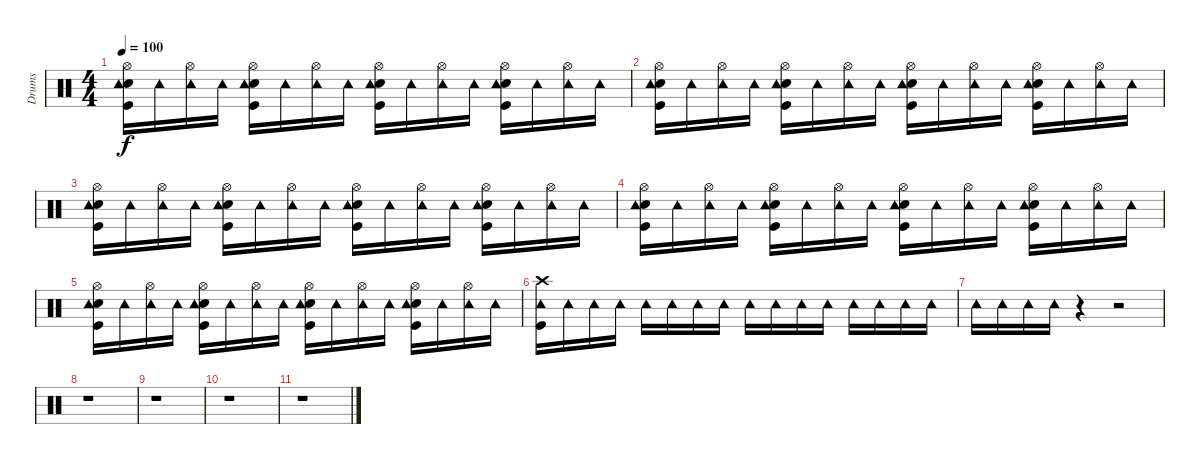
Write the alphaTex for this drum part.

\track ("Drums" "Drums") {instrument percussion}
\staff {score}
\articulation defaults
\ts (4 4)
\tempo 100
\clef neutral
\ks c
("Hi-Hat (open)" "Snare (hit) 2" "Tambourine (hit)" "Kick (hit)").16{dy f} "Tambourine (hit)".16 ("Hi-Hat (open)" "Tambourine (hit)").16 "Tambourine (hit)".16 ("Hi-Hat (open)" "Snare (hit) 2" "Tambourine (hit)" "Kick (hit)").16 "Tambourine (hit)".16 ("Hi-Hat (open)" "Tambourine (hit)").16 "Tambourine (hit)".16 ("Hi-Hat (open)" "Snare (hit) 2" "Tambourine (hit)" "Kick (hit)").16 "Tambourine (hit)".16 ("Hi-Hat (open)" "Tambourine (hit)").16 "Tambourine (hit)".16 ("Hi-Hat (open)" "Snare (hit) 2" "Tambourine (hit)" "Kick (hit)").16 "Tambourine (hit)".16 ("Hi-Hat (open)" "Tambourine (hit)").16 "Tambourine (hit)".16 |
("Hi-Hat (open)" "Snare (hit) 2" "Tambourine (hit)" "Kick (hit)").16 "Tambourine (hit)".16 ("Hi-Hat (open)" "Tambourine (hit)").16 "Tambourine (hit)".16 ("Hi-Hat (open)" "Snare (hit) 2" "Tambourine (hit)" "Kick (hit)").16 "Tambourine (hit)".16 ("Hi-Hat (open)" "Tambourine (hit)").16 "Tambourine (hit)".16 ("Hi-Hat (open)" "Snare (hit) 2" "Tambourine (hit)" "Kick (hit)").16 "Tambourine (hit)".16 ("Hi-Hat (open)" "Tambourine (hit)").16 "Tambourine (hit)".16 ("Hi-Hat (open)" "Snare (hit) 2" "Tambourine (hit)" "Kick (hit)").16 "Tambourine (hit)".16 ("Hi-Hat (open)" "Tambourine (hit)").16 "Tambourine (hit)".16 |
("Hi-Hat (open)" "Snare (hit) 2" "Tambourine (hit)" "Kick (hit)").16 "Tambourine (hit)".16 ("Hi-Hat (open)" "Tambourine (hit)").16 "Tambourine (hit)".16 ("Hi-Hat (open)" "Snare (hit) 2" "Tambourine (hit)" "Kick (hit)").16 "Tambourine (hit)".16 ("Hi-Hat (open)" "Tambourine (hit)").16 "Tambourine (hit)".16 ("Hi-Hat (open)" "Snare (hit) 2" "Tambourine (hit)" "Kick (hit)").16 "Tambourine (hit)".16 ("Hi-Hat (open)" "Tambourine (hit)").16 "Tambourine (hit)".16 ("Hi-Hat (open)" "Snare (hit) 2" "Tambourine (hit)" "Kick (hit)").16 "Tambourine (hit)".16 ("Hi-Hat (open)" "Tambourine (hit)").16 "Tambourine (hit)".16 |
("Hi-Hat (open)" "Snare (hit) 2" "Tambourine (hit)" "Kick (hit)").16 "Tambourine (hit)".16 ("Hi-Hat (open)" "Tambourine (hit)").16 "Tambourine (hit)".16 ("Hi-Hat (open)" "Snare (hit) 2" "Tambourine (hit)" "Kick (hit)").16 "Tambourine (hit)".16 ("Hi-Hat (open)" "Tambourine (hit)").16 "Tambourine (hit)".16 ("Hi-Hat (open)" "Snare (hit) 2" "Tambourine (hit)" "Kick (hit)").16 "Tambourine (hit)".16 ("Hi-Hat (open)" "Tambourine (hit)").16 "Tambourine (hit)".16 ("Hi-Hat (open)" "Snare (hit) 2" "Tambourine (hit)" "Kick (hit)").16 "Tambourine (hit)".16 ("Hi-Hat (open)" "Tambourine (hit)").16 "Tambourine (hit)".16 |
("Hi-Hat (open)" "Snare (hit) 2" "Tambourine (hit)" "Kick (hit)").16 "Tambourine (hit)".16 ("Hi-Hat (open)" "Tambourine (hit)").16 "Tambourine (hit)".16 ("Hi-Hat (open)" "Snare (hit) 2" "Tambourine (hit)" "Kick (hit)").16 "Tambourine (hit)".16 ("Hi-Hat (open)" "Tambourine (hit)").16 "Tambourine (hit)".16 ("Hi-Hat (open)" "Snare (hit) 2" "Tambourine (hit)" "Kick (hit)").16 "Tambourine (hit)".16 ("Hi-Hat (open)" "Tambourine (hit)").16 "Tambourine (hit)".16 ("Hi-Hat (open)" "Snare (hit) 2" "Tambourine (hit)" "Kick (hit)").16 "Tambourine (hit)".16 ("Hi-Hat (open)" "Tambourine (hit)").16 "Tambourine (hit)".16 |
("Crash high (hit)" "Tambourine (hit)" "Kick (hit)").16 "Tambourine (hit)".16 "Tambourine (hit)".16 "Tambourine (hit)".16 "Tambourine (hit)".16 "Tambourine (hit)".16 "Tambourine (hit)".16 "Tambourine (hit)".16 "Tambourine (hit)".16 "Tambourine (hit)".16 "Tambourine (hit)".16 "Tambourine (hit)".16 "Tambourine (hit)".16 "Tambourine (hit)".16 "Tambourine (hit)".16 "Tambourine (hit)".16 |
"Tambourine (hit)".16 "Tambourine (hit)".16 "Tambourine (hit)".16 "Tambourine (hit)".16 r.4 r.2 |
r.1 |
r.1 |
r.1 |
r.1
